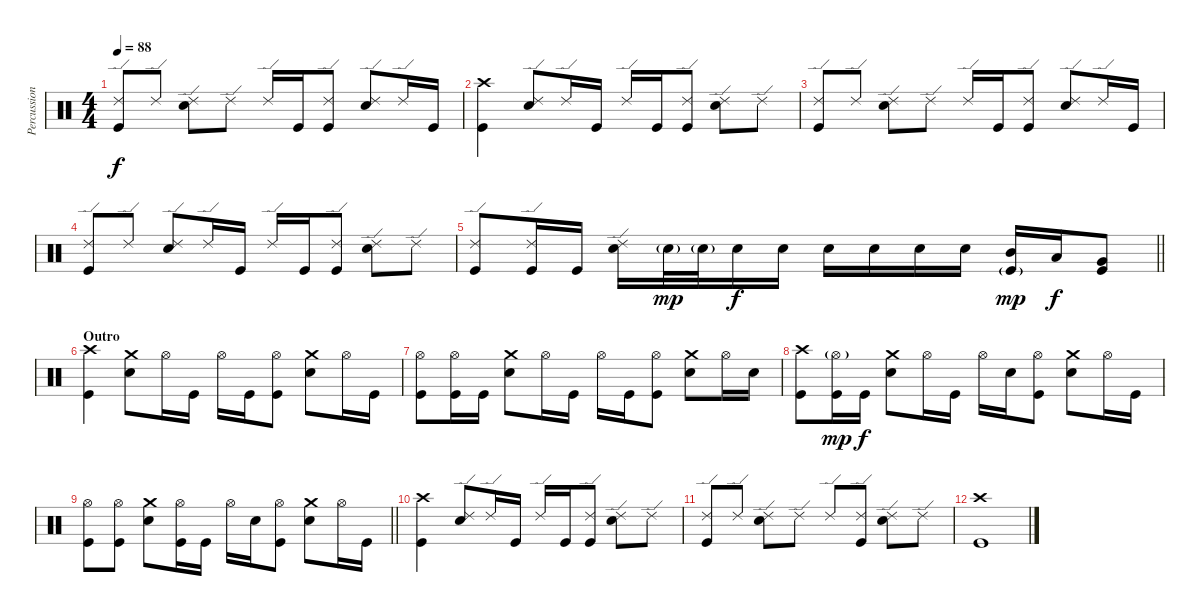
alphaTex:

\track ("Percussion" "Percussion") {instrument percussion}
\staff {score}
\articulation defaults
\ts (4 4)
\tempo 88
\clef neutral
\ks c
("Ride (edge) 2" "Kick (hit)").8{dy f} "Ride (edge) 2".8 ("Ride (edge) 2" "Snare (hit) 2").8 "Ride (edge) 2".8 "Ride (edge) 2".16 "Kick (hit)".16 ("Ride (edge) 2" "Kick (hit)").8 ("Ride (edge) 2" "Snare (hit) 2").8 "Ride (edge) 2".16 "Kick (hit)".16 |
("Crash high (hit)" "Kick (hit)").4 ("Ride (edge) 2" "Snare (hit) 2").8 "Ride (edge) 2".16 "Kick (hit)".16 "Ride (edge) 2".16 "Kick (hit)".16 ("Ride (edge) 2" "Kick (hit)").8 ("Ride (edge) 2" "Snare (hit) 2").8 "Ride (edge) 2".8 |
("Ride (edge) 2" "Kick (hit)").8 "Ride (edge) 2".8 ("Ride (edge) 2" "Snare (hit) 2").8 "Ride (edge) 2".8 "Ride (edge) 2".16 "Kick (hit)".16 ("Ride (edge) 2" "Kick (hit)").8 ("Ride (edge) 2" "Snare (hit) 2").8 "Ride (edge) 2".16 "Kick (hit)".16 |
("Ride (edge) 2" "Kick (hit)").8 "Ride (edge) 2".8 ("Ride (edge) 2" "Snare (hit) 2").8 "Ride (edge) 2".16 "Kick (hit)".16 "Ride (edge) 2".16 "Kick (hit)".16 ("Ride (edge) 2" "Kick (hit)").8 ("Ride (edge) 2" "Snare (hit) 2").8 "Ride (edge) 2".8 |
\barLineRight lightlight
("Ride (edge) 2" "Kick (hit)").8 ("Ride (edge) 2" "Kick (hit)").16 "Kick (hit)".16 ("Ride (edge) 2" "Snare (hit) 2").16 "Snare (hit) 2"{g}.32{dy mp} "Snare (hit) 2"{g}.32 "Snare (hit) 2".16{dy f} "Snare (hit) 2".16 "Snare (hit) 2".16 "Snare (hit) 2".16 "Snare (hit) 2".16 "Snare (hit) 2".16 ("Mid Tom (hit)" "Kick (hit)"{g}).16{dy mp} "Low Tom (hit)".16{dy f} ("Very Low Tom (hit)" "Kick (hit)").8 |
\section ("" "Outro")
("Crash high (hit)" "Kick (hit)").4 ("Crash medium (hit)" "Snare (hit) 2").8 "Hi-Hat (open)".16 "Kick (hit)".16 "Hi-Hat (open)".16 "Kick (hit)".16 ("Hi-Hat (open)" "Kick (hit)").8 ("Crash medium (hit)" "Snare (hit) 2").8 "Hi-Hat (open)".16 "Kick (hit)".16 |
("Hi-Hat (open)" "Kick (hit)").8 ("Hi-Hat (open)" "Kick (hit)").16 "Kick (hit)".16 ("Crash medium (hit)" "Snare (hit) 2").8 "Hi-Hat (open)".16 "Kick (hit)".16 "Hi-Hat (open)".16 "Kick (hit)".16 ("Hi-Hat (open)" "Kick (hit)").8 ("Crash medium (hit)" "Snare (hit) 2").8 "Hi-Hat (open)".16 "Snare (hit) 2".16 |
("Crash high (hit)" "Kick (hit)").8 ("Hi-Hat (open)"{g} "Kick (hit)").16{dy mp} "Kick (hit)".16{dy f} ("Crash medium (hit)" "Snare (hit) 2").8 "Hi-Hat (open)".16 "Kick (hit)".16 "Hi-Hat (open)".16 "Snare (hit) 2".16 ("Hi-Hat (open)" "Kick (hit)").8 ("Crash medium (hit)" "Snare (hit) 2").8 "Hi-Hat (open)".16 "Kick (hit)".16 |
\barLineRight lightlight
("Hi-Hat (open)" "Kick (hit)").8 ("Hi-Hat (open)" "Kick (hit)").8 ("Crash medium (hit)" "Snare (hit) 2").8 ("Hi-Hat (open)" "Kick (hit)").16 "Kick (hit)".16 "Hi-Hat (open)".16 "Snare (hit) 2".16 ("Hi-Hat (open)" "Kick (hit)").8 ("Crash medium (hit)" "Snare (hit) 2").8 "Hi-Hat (open)".16 "Kick (hit)".16 |
("Crash high (hit)" "Kick (hit)").4 ("Ride (edge) 2" "Snare (hit) 2").8 "Ride (edge) 2".16 "Kick (hit)".16 "Ride (edge) 2".16 "Kick (hit)".16 ("Ride (edge) 2" "Kick (hit)").8 ("Ride (edge) 2" "Snare (hit) 2").8 "Ride (edge) 2".8 |
("Ride (edge) 2" "Kick (hit)").8 "Ride (edge) 2".8 ("Ride (edge) 2" "Snare (hit) 2").8 "Ride (edge) 2".8 "Ride (edge) 2".8 ("Ride (edge) 2" "Kick (hit)").8 ("Ride (edge) 2" "Snare (hit) 2").8 "Ride (edge) 2".8 |
("Crash high (hit)" "Kick (hit)").1
